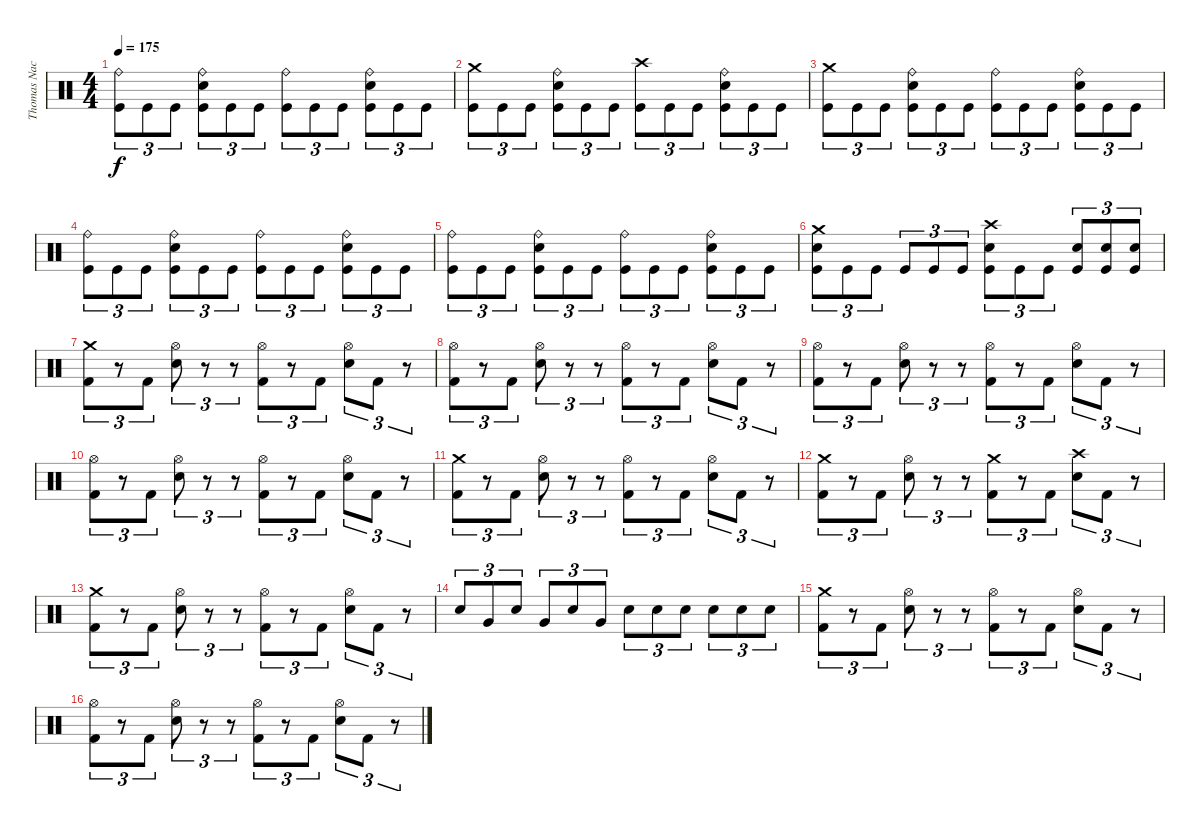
\track ("Thomas Nack" "Thomas Nac") {instrument percussion}
\staff {score}
\articulation defaults
\ts (4 4)
\tempo 175
\clef neutral
\ks c
("Ride (bell)" "Kick (hit)").8{tu (3 2) dy f} "Kick (hit)".8{tu (3 2)} "Kick (hit)".8{tu (3 2)} ("Ride (bell)" "Electric Snare (hit)" "Kick (hit)").8{tu (3 2)} "Kick (hit)".8{tu (3 2)} "Kick (hit)".8{tu (3 2)} ("Ride (bell)" "Kick (hit)").8{tu (3 2)} "Kick (hit)".8{tu (3 2)} "Kick (hit)".8{tu (3 2)} ("Ride (bell)" "Electric Snare (hit)" "Kick (hit)").8{tu (3 2)} "Kick (hit)".8{tu (3 2)} "Kick (hit)".8{tu (3 2)} |
("Crash medium (hit)" "Kick (hit)").8{tu (3 2)} "Kick (hit)".8{tu (3 2)} "Kick (hit)".8{tu (3 2)} ("Ride (bell)" "Electric Snare (hit)" "Kick (hit)").8{tu (3 2)} "Kick (hit)".8{tu (3 2)} "Kick (hit)".8{tu (3 2)} ("Crash high (hit)" "Kick (hit)").8{tu (3 2)} "Kick (hit)".8{tu (3 2)} "Kick (hit)".8{tu (3 2)} ("Ride (bell)" "Electric Snare (hit)" "Kick (hit)").8{tu (3 2)} "Kick (hit)".8{tu (3 2)} "Kick (hit)".8{tu (3 2)} |
("Crash medium (hit)" "Kick (hit)").8{tu (3 2)} "Kick (hit)".8{tu (3 2)} "Kick (hit)".8{tu (3 2)} ("Ride (bell)" "Electric Snare (hit)" "Kick (hit)").8{tu (3 2)} "Kick (hit)".8{tu (3 2)} "Kick (hit)".8{tu (3 2)} ("Ride (bell)" "Kick (hit)").8{tu (3 2)} "Kick (hit)".8{tu (3 2)} "Kick (hit)".8{tu (3 2)} ("Ride (bell)" "Electric Snare (hit)" "Kick (hit)").8{tu (3 2)} "Kick (hit)".8{tu (3 2)} "Kick (hit)".8{tu (3 2)} |
("Ride (bell)" "Kick (hit)").8{tu (3 2)} "Kick (hit)".8{tu (3 2)} "Kick (hit)".8{tu (3 2)} ("Ride (bell)" "Electric Snare (hit)" "Kick (hit)").8{tu (3 2)} "Kick (hit)".8{tu (3 2)} "Kick (hit)".8{tu (3 2)} ("Ride (bell)" "Kick (hit)").8{tu (3 2)} "Kick (hit)".8{tu (3 2)} "Kick (hit)".8{tu (3 2)} ("Ride (bell)" "Electric Snare (hit)" "Kick (hit)").8{tu (3 2)} "Kick (hit)".8{tu (3 2)} "Kick (hit)".8{tu (3 2)} |
("Ride (bell)" "Kick (hit)").8{tu (3 2)} "Kick (hit)".8{tu (3 2)} "Kick (hit)".8{tu (3 2)} ("Ride (bell)" "Electric Snare (hit)" "Kick (hit)").8{tu (3 2)} "Kick (hit)".8{tu (3 2)} "Kick (hit)".8{tu (3 2)} ("Ride (bell)" "Kick (hit)").8{tu (3 2)} "Kick (hit)".8{tu (3 2)} "Kick (hit)".8{tu (3 2)} ("Ride (bell)" "Electric Snare (hit)" "Kick (hit)").8{tu (3 2)} "Kick (hit)".8{tu (3 2)} "Kick (hit)".8{tu (3 2)} |
("Crash medium (hit)" "Electric Snare (hit)" "Kick (hit)").8{tu (3 2)} "Kick (hit)".8{tu (3 2)} "Kick (hit)".8{tu (3 2)} "Kick (hit)".8{tu (3 2)} "Kick (hit)".8{tu (3 2)} "Kick (hit)".8{tu (3 2)} ("Crash high (hit)" "Electric Snare (hit)" "Kick (hit)").8{tu (3 2)} "Kick (hit)".8{tu (3 2)} "Kick (hit)".8{tu (3 2)} ("Electric Snare (hit)" "Kick (hit)").8{tu (3 2)} ("Electric Snare (hit)" "Kick (hit)").8{tu (3 2)} ("Electric Snare (hit)" "Kick (hit)").8{tu (3 2)} |
("Crash medium (hit)" "Kick (hit) 2").8{tu (3 2)} r.8{tu (3 2)} "Kick (hit) 2".8{tu (3 2)} ("Hi-Hat (open)" "Electric Snare (hit)").8{tu (3 2)} r.8{tu (3 2)} r.8{tu (3 2)} ("Hi-Hat (open)" "Kick (hit) 2").8{tu (3 2)} r.8{tu (3 2)} "Kick (hit) 2".8{tu (3 2)} ("Hi-Hat (open)" "Electric Snare (hit)").8{tu (3 2)} "Kick (hit) 2".8{tu (3 2)} r.8{tu (3 2)} |
("Hi-Hat (open)" "Kick (hit) 2").8{tu (3 2)} r.8{tu (3 2)} "Kick (hit) 2".8{tu (3 2)} ("Hi-Hat (open)" "Electric Snare (hit)").8{tu (3 2)} r.8{tu (3 2)} r.8{tu (3 2)} ("Hi-Hat (open)" "Kick (hit) 2").8{tu (3 2)} r.8{tu (3 2)} "Kick (hit) 2".8{tu (3 2)} ("Hi-Hat (open)" "Electric Snare (hit)").8{tu (3 2)} "Kick (hit) 2".8{tu (3 2)} r.8{tu (3 2)} |
("Hi-Hat (open)" "Kick (hit) 2").8{tu (3 2)} r.8{tu (3 2)} "Kick (hit) 2".8{tu (3 2)} ("Hi-Hat (open)" "Electric Snare (hit)").8{tu (3 2)} r.8{tu (3 2)} r.8{tu (3 2)} ("Hi-Hat (open)" "Kick (hit) 2").8{tu (3 2)} r.8{tu (3 2)} "Kick (hit) 2".8{tu (3 2)} ("Hi-Hat (open)" "Electric Snare (hit)").8{tu (3 2)} "Kick (hit) 2".8{tu (3 2)} r.8{tu (3 2)} |
("Hi-Hat (open)" "Kick (hit) 2").8{tu (3 2)} r.8{tu (3 2)} "Kick (hit) 2".8{tu (3 2)} ("Hi-Hat (open)" "Electric Snare (hit)").8{tu (3 2)} r.8{tu (3 2)} r.8{tu (3 2)} ("Hi-Hat (open)" "Kick (hit) 2").8{tu (3 2)} r.8{tu (3 2)} "Kick (hit) 2".8{tu (3 2)} ("Hi-Hat (open)" "Electric Snare (hit)").8{tu (3 2)} "Kick (hit) 2".8{tu (3 2)} r.8{tu (3 2)} |
("Crash medium (hit)" "Kick (hit) 2").8{tu (3 2)} r.8{tu (3 2)} "Kick (hit) 2".8{tu (3 2)} ("Hi-Hat (open)" "Electric Snare (hit)").8{tu (3 2)} r.8{tu (3 2)} r.8{tu (3 2)} ("Hi-Hat (open)" "Kick (hit) 2").8{tu (3 2)} r.8{tu (3 2)} "Kick (hit) 2".8{tu (3 2)} ("Hi-Hat (open)" "Electric Snare (hit)").8{tu (3 2)} "Kick (hit) 2".8{tu (3 2)} r.8{tu (3 2)} |
("Crash medium (hit)" "Kick (hit) 2").8{tu (3 2)} r.8{tu (3 2)} "Kick (hit) 2".8{tu (3 2)} ("Hi-Hat (open)" "Electric Snare (hit)").8{tu (3 2)} r.8{tu (3 2)} r.8{tu (3 2)} ("Crash medium (hit)" "Kick (hit) 2").8{tu (3 2)} r.8{tu (3 2)} "Kick (hit) 2".8{tu (3 2)} ("Crash high (hit)" "Electric Snare (hit)").8{tu (3 2)} "Kick (hit) 2".8{tu (3 2)} r.8{tu (3 2)} |
("Crash medium (hit)" "Kick (hit) 2").8{tu (3 2)} r.8{tu (3 2)} "Kick (hit) 2".8{tu (3 2)} ("Hi-Hat (open)" "Electric Snare (hit)").8{tu (3 2)} r.8{tu (3 2)} r.8{tu (3 2)} ("Hi-Hat (open)" "Kick (hit) 2").8{tu (3 2)} r.8{tu (3 2)} "Kick (hit) 2".8{tu (3 2)} ("Hi-Hat (open)" "Electric Snare (hit)").8{tu (3 2)} "Kick (hit) 2".8{tu (3 2)} r.8{tu (3 2)} |
"Electric Snare (hit)".8{tu (3 2)} "Very Low Tom (hit)".8{tu (3 2)} "Electric Snare (hit)".8{tu (3 2)} "Very Low Tom (hit)".8{tu (3 2)} "Electric Snare (hit)".8{tu (3 2)} "Very Low Tom (hit)".8{tu (3 2)} "Electric Snare (hit)".8{tu (3 2)} "Electric Snare (hit)".8{tu (3 2)} "Electric Snare (hit)".8{tu (3 2)} "Electric Snare (hit)".8{tu (3 2)} "Electric Snare (hit)".8{tu (3 2)} "Electric Snare (hit)".8{tu (3 2)} |
("Crash medium (hit)" "Kick (hit) 2").8{tu (3 2)} r.8{tu (3 2)} "Kick (hit) 2".8{tu (3 2)} ("Hi-Hat (open)" "Electric Snare (hit)").8{tu (3 2)} r.8{tu (3 2)} r.8{tu (3 2)} ("Hi-Hat (open)" "Kick (hit) 2").8{tu (3 2)} r.8{tu (3 2)} "Kick (hit) 2".8{tu (3 2)} ("Hi-Hat (open)" "Electric Snare (hit)").8{tu (3 2)} "Kick (hit) 2".8{tu (3 2)} r.8{tu (3 2)} |
("Hi-Hat (open)" "Kick (hit) 2").8{tu (3 2)} r.8{tu (3 2)} "Kick (hit) 2".8{tu (3 2)} ("Hi-Hat (open)" "Electric Snare (hit)").8{tu (3 2)} r.8{tu (3 2)} r.8{tu (3 2)} ("Hi-Hat (open)" "Kick (hit) 2").8{tu (3 2)} r.8{tu (3 2)} "Kick (hit) 2".8{tu (3 2)} ("Hi-Hat (open)" "Electric Snare (hit)").8{tu (3 2)} "Kick (hit) 2".8{tu (3 2)} r.8{tu (3 2)}
